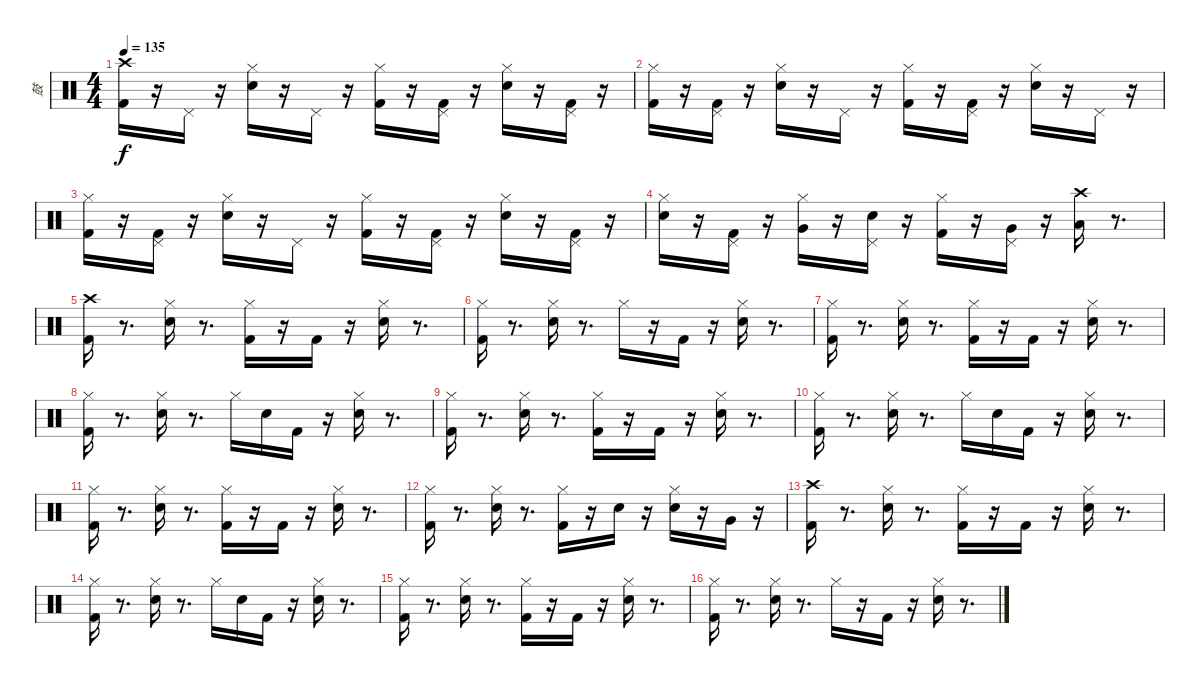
\track ("鼓" "鼓") {instrument percussion}
\staff {score}
\articulation defaults
\ts (4 4)
\tempo 135
\clef neutral
\ks c
("Crash high (hit)" "Kick (hit) 2").16{dy f} r.16 "Pedal Hi-Hat (hit)".16 r.16 ("Hi-Hat (closed)" "Electric Snare (hit)").16 r.16 "Pedal Hi-Hat (hit)".16 r.16 ("Hi-Hat (closed)" "Kick (hit) 2").16 r.16 ("Pedal Hi-Hat (hit)" "Kick (hit) 2").16 r.16 ("Hi-Hat (closed)" "Electric Snare (hit)").16 r.16 ("Kick (hit) 2" "Pedal Hi-Hat (hit)").16 r.16 |
("Hi-Hat (closed)" "Kick (hit) 2").16 r.16 ("Kick (hit) 2" "Pedal Hi-Hat (hit)").16 r.16 ("Hi-Hat (closed)" "Electric Snare (hit)").16 r.16 "Pedal Hi-Hat (hit)".16 r.16 ("Hi-Hat (closed)" "Kick (hit) 2").16 r.16 ("Pedal Hi-Hat (hit)" "Kick (hit) 2").16 r.16 ("Hi-Hat (closed)" "Electric Snare (hit)").16 r.16 "Pedal Hi-Hat (hit)".16 r.16 |
("Hi-Hat (closed)" "Kick (hit) 2").16 r.16 ("Pedal Hi-Hat (hit)" "Kick (hit) 2").16 r.16 ("Electric Snare (hit)" "Hi-Hat (closed)").16 r.16 "Pedal Hi-Hat (hit)".16 r.16 ("Kick (hit) 2" "Hi-Hat (closed)").16 r.16 ("Kick (hit) 2" "Pedal Hi-Hat (hit)").16 r.16 ("Electric Snare (hit)" "Hi-Hat (closed)").16 r.16 ("Kick (hit) 2" "Pedal Hi-Hat (hit)").16 r.16 |
("Hi-Hat (closed)" "Electric Snare (hit)").16 r.16 ("Pedal Hi-Hat (hit)" "Kick (hit) 2").16 r.16 ("Hi-Hat (closed)" "Very Low Tom (hit)").16 r.16 ("Pedal Hi-Hat (hit)" "Electric Snare (hit)").16 r.16 ("Hi-Hat (closed)" "Kick (hit) 2").16 r.16 ("Pedal Hi-Hat (hit)" "Very Low Tom (hit)").16 r.16 ("Crash high (hit)" "Low Floor Tom (hit)").16 r.8{d} |
("Kick (hit) 2" "Crash high (hit)").16 r.8{d} ("Hi-Hat (closed)" "Electric Snare (hit)").16 r.8{d} ("Hi-Hat (closed)" "Kick (hit) 2").16 r.16 "Kick (hit) 2".16 r.16 ("Hi-Hat (closed)" "Electric Snare (hit)").16 r.8{d} |
("Hi-Hat (closed)" "Kick (hit) 2").16 r.8{d} ("Hi-Hat (closed)" "Electric Snare (hit)").16 r.8{d} "Hi-Hat (closed)".16 r.16 "Kick (hit) 2".16 r.16 ("Hi-Hat (closed)" "Electric Snare (hit)").16 r.8{d} |
("Hi-Hat (closed)" "Kick (hit) 2").16 r.8{d} ("Hi-Hat (closed)" "Electric Snare (hit)").16 r.8{d} ("Hi-Hat (closed)" "Kick (hit) 2").16 r.16 "Kick (hit) 2".16 r.16 ("Hi-Hat (closed)" "Electric Snare (hit)").16 r.8{d} |
("Hi-Hat (closed)" "Kick (hit) 2").16 r.8{d} ("Hi-Hat (closed)" "Electric Snare (hit)").16 r.8{d} "Hi-Hat (closed)".16 "Electric Snare (hit)".16 "Kick (hit) 2".16 r.16 ("Hi-Hat (closed)" "Electric Snare (hit)").16 r.8{d} |
("Hi-Hat (closed)" "Kick (hit) 2").16 r.8{d} ("Hi-Hat (closed)" "Electric Snare (hit)").16 r.8{d} ("Hi-Hat (closed)" "Kick (hit) 2").16 r.16 "Kick (hit) 2".16 r.16 ("Hi-Hat (closed)" "Electric Snare (hit)").16 r.8{d} |
("Hi-Hat (closed)" "Kick (hit) 2").16 r.8{d} ("Hi-Hat (closed)" "Electric Snare (hit)").16 r.8{d} "Hi-Hat (closed)".16 "Electric Snare (hit)".16 "Kick (hit) 2".16 r.16 ("Hi-Hat (closed)" "Electric Snare (hit)").16 r.8{d} |
("Hi-Hat (closed)" "Kick (hit) 2").16 r.8{d} ("Hi-Hat (closed)" "Electric Snare (hit)").16 r.8{d} ("Hi-Hat (closed)" "Kick (hit) 2").16 r.16 "Kick (hit) 2".16 r.16 ("Hi-Hat (closed)" "Electric Snare (hit)").16 r.8{d} |
("Hi-Hat (closed)" "Kick (hit) 2").16 r.8{d} ("Hi-Hat (closed)" "Electric Snare (hit)").16 r.8{d} ("Hi-Hat (closed)" "Kick (hit) 2").16 r.16 "Electric Snare (hit)".16 r.16 ("Hi-Hat (closed)" "Electric Snare (hit)").16 r.16 "Very Low Tom (hit)".16 r.16 |
("Kick (hit) 2" "Crash high (hit)").16 r.8{d} ("Hi-Hat (closed)" "Electric Snare (hit)").16 r.8{d} ("Hi-Hat (closed)" "Kick (hit) 2").16 r.16 "Kick (hit) 2".16 r.16 ("Hi-Hat (closed)" "Electric Snare (hit)").16 r.8{d} |
("Hi-Hat (closed)" "Kick (hit) 2").16 r.8{d} ("Hi-Hat (closed)" "Electric Snare (hit)").16 r.8{d} "Hi-Hat (closed)".16 "Electric Snare (hit)".16 "Kick (hit) 2".16 r.16 ("Hi-Hat (closed)" "Electric Snare (hit)").16 r.8{d} |
("Hi-Hat (closed)" "Kick (hit) 2").16 r.8{d} ("Hi-Hat (closed)" "Electric Snare (hit)").16 r.8{d} ("Hi-Hat (closed)" "Kick (hit) 2").16 r.16 "Kick (hit) 2".16 r.16 ("Hi-Hat (closed)" "Electric Snare (hit)").16 r.8{d} |
("Hi-Hat (closed)" "Kick (hit) 2").16 r.8{d} ("Hi-Hat (closed)" "Electric Snare (hit)").16 r.8{d} "Hi-Hat (closed)".16 r.16 "Kick (hit) 2".16 r.16 ("Hi-Hat (closed)" "Electric Snare (hit)").16 r.8{d}
